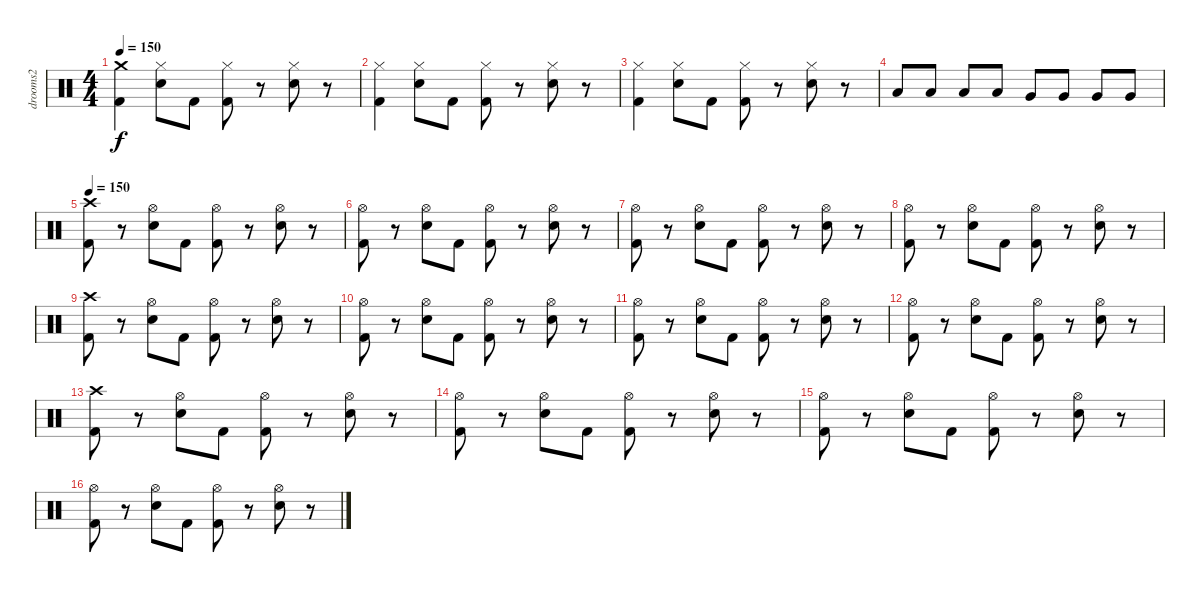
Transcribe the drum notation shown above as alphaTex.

\track ("drooms2" "drooms2") {instrument percussion}
\staff {score}
\articulation defaults
\ts (4 4)
\tempo 150
\clef neutral
\ks c
("Crash medium (hit)" "Kick (hit) 2").4{dy f} ("Hi-Hat (closed)" "Snare (hit) 2").8 "Kick (hit) 2".8 ("Hi-Hat (closed)" "Kick (hit) 2").8 r.8 ("Hi-Hat (closed)" "Snare (hit) 2").8 r.8 |
("Hi-Hat (closed)" "Kick (hit) 2").4 ("Hi-Hat (closed)" "Snare (hit) 2").8 "Kick (hit) 2".8 ("Hi-Hat (closed)" "Kick (hit) 2").8 r.8 ("Hi-Hat (closed)" "Snare (hit) 2").8 r.8 |
("Hi-Hat (closed)" "Kick (hit) 2").4 ("Hi-Hat (closed)" "Snare (hit) 2").8 "Kick (hit) 2".8 ("Hi-Hat (closed)" "Kick (hit) 2").8 r.8 ("Hi-Hat (closed)" "Snare (hit) 2").8 r.8 |
"Low Tom (hit)".8 "Low Tom (hit)".8 "Low Tom (hit)".8 "Low Tom (hit)".8 "Very Low Tom (hit)".8 "Very Low Tom (hit)".8 "Very Low Tom (hit)".8 "Very Low Tom (hit)".8 |
\tempo 150
("Kick (hit) 2" "Crash high (hit)").8 r.8 ("Hi-Hat (open)" "Snare (hit) 2").8 "Kick (hit) 2".8 ("Hi-Hat (open)" "Kick (hit) 2").8 r.8 ("Hi-Hat (open)" "Snare (hit) 2").8 r.8 |
("Kick (hit) 2" "Hi-Hat (open)").8 r.8 ("Snare (hit) 2" "Hi-Hat (open)").8 "Kick (hit) 2".8 ("Kick (hit) 2" "Hi-Hat (open)").8 r.8 ("Snare (hit) 2" "Hi-Hat (open)").8 r.8 |
("Kick (hit) 2" "Hi-Hat (open)").8 r.8 ("Snare (hit) 2" "Hi-Hat (open)").8 "Kick (hit) 2".8 ("Kick (hit) 2" "Hi-Hat (open)").8 r.8 ("Snare (hit) 2" "Hi-Hat (open)").8 r.8 |
("Kick (hit) 2" "Hi-Hat (open)").8 r.8 ("Snare (hit) 2" "Hi-Hat (open)").8 "Kick (hit) 2".8 ("Kick (hit) 2" "Hi-Hat (open)").8 r.8 ("Snare (hit) 2" "Hi-Hat (open)").8 r.8 |
("Kick (hit) 2" "Crash high (hit)").8 r.8 ("Hi-Hat (open)" "Snare (hit) 2").8 "Kick (hit) 2".8 ("Hi-Hat (open)" "Kick (hit) 2").8 r.8 ("Hi-Hat (open)" "Snare (hit) 2").8 r.8 |
("Kick (hit) 2" "Hi-Hat (open)").8 r.8 ("Snare (hit) 2" "Hi-Hat (open)").8 "Kick (hit) 2".8 ("Kick (hit) 2" "Hi-Hat (open)").8 r.8 ("Snare (hit) 2" "Hi-Hat (open)").8 r.8 |
("Kick (hit) 2" "Hi-Hat (open)").8 r.8 ("Snare (hit) 2" "Hi-Hat (open)").8 "Kick (hit) 2".8 ("Kick (hit) 2" "Hi-Hat (open)").8 r.8 ("Snare (hit) 2" "Hi-Hat (open)").8 r.8 |
("Kick (hit) 2" "Hi-Hat (open)").8 r.8 ("Snare (hit) 2" "Hi-Hat (open)").8 "Kick (hit) 2".8 ("Kick (hit) 2" "Hi-Hat (open)").8 r.8 ("Snare (hit) 2" "Hi-Hat (open)").8 r.8 |
("Kick (hit) 2" "Crash high (hit)").8 r.8 ("Hi-Hat (open)" "Snare (hit) 2").8 "Kick (hit) 2".8 ("Hi-Hat (open)" "Kick (hit) 2").8 r.8 ("Hi-Hat (open)" "Snare (hit) 2").8 r.8 |
("Kick (hit) 2" "Hi-Hat (open)").8 r.8 ("Snare (hit) 2" "Hi-Hat (open)").8 "Kick (hit) 2".8 ("Kick (hit) 2" "Hi-Hat (open)").8 r.8 ("Snare (hit) 2" "Hi-Hat (open)").8 r.8 |
("Kick (hit) 2" "Hi-Hat (open)").8 r.8 ("Snare (hit) 2" "Hi-Hat (open)").8 "Kick (hit) 2".8 ("Kick (hit) 2" "Hi-Hat (open)").8 r.8 ("Snare (hit) 2" "Hi-Hat (open)").8 r.8 |
("Kick (hit) 2" "Hi-Hat (open)").8 r.8 ("Snare (hit) 2" "Hi-Hat (open)").8 "Kick (hit) 2".8 ("Kick (hit) 2" "Hi-Hat (open)").8 r.8 ("Snare (hit) 2" "Hi-Hat (open)").8 r.8
